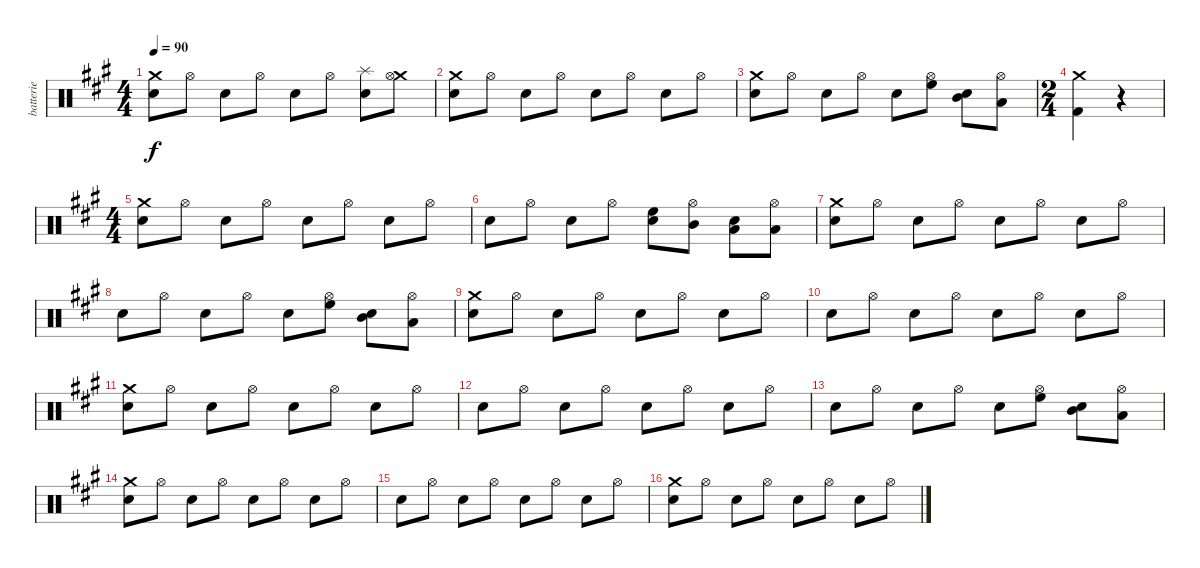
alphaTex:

\track ("batterie" "batterie") {instrument percussion}
\staff {score}
\articulation defaults
\ts (4 4)
\tempo 90
\clef neutral
\ks f#minor
("Crash medium (hit)" "Electric Snare (hit)").8{dy f} "Hi-Hat (open)".8 "Electric Snare (hit)".8 "Hi-Hat (open)".8 "Electric Snare (hit)".8 "Hi-Hat (open)".8 ("Splash (hit)" "Electric Snare (hit)").8 ("Crash medium (hit)" "Hi-Hat (open)").8 |
("Crash medium (hit)" "Electric Snare (hit)").8 "Hi-Hat (open)".8 "Electric Snare (hit)".8 "Hi-Hat (open)".8 "Electric Snare (hit)".8 "Hi-Hat (open)".8 "Electric Snare (hit)".8 "Hi-Hat (open)".8 |
("Crash medium (hit)" "Electric Snare (hit)").8 "Hi-Hat (open)".8 "Electric Snare (hit)".8 "Hi-Hat (open)".8 "Electric Snare (hit)".8 ("High Floor Tom (hit)" "Hi-Hat (open)").8 ("Mid Tom (hit)" "Electric Snare (hit)").8 ("Low Tom (hit)" "Hi-Hat (open)").8 |
\ts (2 4)
("Kick (hit) 2" "Crash medium (hit)").4 r.4 |
\ts (4 4)
("Crash medium (hit)" "Electric Snare (hit)").8 "Hi-Hat (open)".8 "Electric Snare (hit)".8 "Hi-Hat (open)".8 "Electric Snare (hit)".8 "Hi-Hat (open)".8 "Electric Snare (hit)".8 "Hi-Hat (open)".8 |
"Electric Snare (hit)".8 "Hi-Hat (open)".8 "Electric Snare (hit)".8 "Hi-Hat (open)".8 ("High Floor Tom (hit)" "Electric Snare (hit)").8 ("Mid Tom (hit)" "Hi-Hat (open)").8 ("Low Tom (hit)" "Electric Snare (hit)").8 ("Low Floor Tom (hit)" "Hi-Hat (open)").8 |
("Crash medium (hit)" "Electric Snare (hit)").8 "Hi-Hat (open)".8 "Electric Snare (hit)".8 "Hi-Hat (open)".8 "Electric Snare (hit)".8 "Hi-Hat (open)".8 "Electric Snare (hit)".8 "Hi-Hat (open)".8 |
"Electric Snare (hit)".8 "Hi-Hat (open)".8 "Electric Snare (hit)".8 "Hi-Hat (open)".8 "Electric Snare (hit)".8 ("High Floor Tom (hit)" "Hi-Hat (open)").8 ("Mid Tom (hit)" "Electric Snare (hit)").8 ("Low Tom (hit)" "Hi-Hat (open)").8 |
("Crash medium (hit)" "Electric Snare (hit)").8 "Hi-Hat (open)".8 "Electric Snare (hit)".8 "Hi-Hat (open)".8 "Electric Snare (hit)".8 "Hi-Hat (open)".8 "Electric Snare (hit)".8 "Hi-Hat (open)".8 |
"Electric Snare (hit)".8 "Hi-Hat (open)".8 "Electric Snare (hit)".8 "Hi-Hat (open)".8 "Electric Snare (hit)".8 "Hi-Hat (open)".8 "Electric Snare (hit)".8 "Hi-Hat (open)".8 |
("Crash medium (hit)" "Electric Snare (hit)").8 "Hi-Hat (open)".8 "Electric Snare (hit)".8 "Hi-Hat (open)".8 "Electric Snare (hit)".8 "Hi-Hat (open)".8 "Electric Snare (hit)".8 "Hi-Hat (open)".8 |
"Electric Snare (hit)".8 "Hi-Hat (open)".8 "Electric Snare (hit)".8 "Hi-Hat (open)".8 "Electric Snare (hit)".8 "Hi-Hat (open)".8 "Electric Snare (hit)".8 "Hi-Hat (open)".8 |
"Electric Snare (hit)".8 "Hi-Hat (open)".8 "Electric Snare (hit)".8 "Hi-Hat (open)".8 "Electric Snare (hit)".8 ("High Floor Tom (hit)" "Hi-Hat (open)").8 ("Mid Tom (hit)" "Electric Snare (hit)").8 ("Low Tom (hit)" "Hi-Hat (open)").8 |
("Crash medium (hit)" "Electric Snare (hit)").8 "Hi-Hat (open)".8 "Electric Snare (hit)".8 "Hi-Hat (open)".8 "Electric Snare (hit)".8 "Hi-Hat (open)".8 "Electric Snare (hit)".8 "Hi-Hat (open)".8 |
"Electric Snare (hit)".8 "Hi-Hat (open)".8 "Electric Snare (hit)".8 "Hi-Hat (open)".8 "Electric Snare (hit)".8 "Hi-Hat (open)".8 "Electric Snare (hit)".8 "Hi-Hat (open)".8 |
("Crash medium (hit)" "Electric Snare (hit)").8 "Hi-Hat (open)".8 "Electric Snare (hit)".8 "Hi-Hat (open)".8 "Electric Snare (hit)".8 "Hi-Hat (open)".8 "Electric Snare (hit)".8 "Hi-Hat (open)".8
